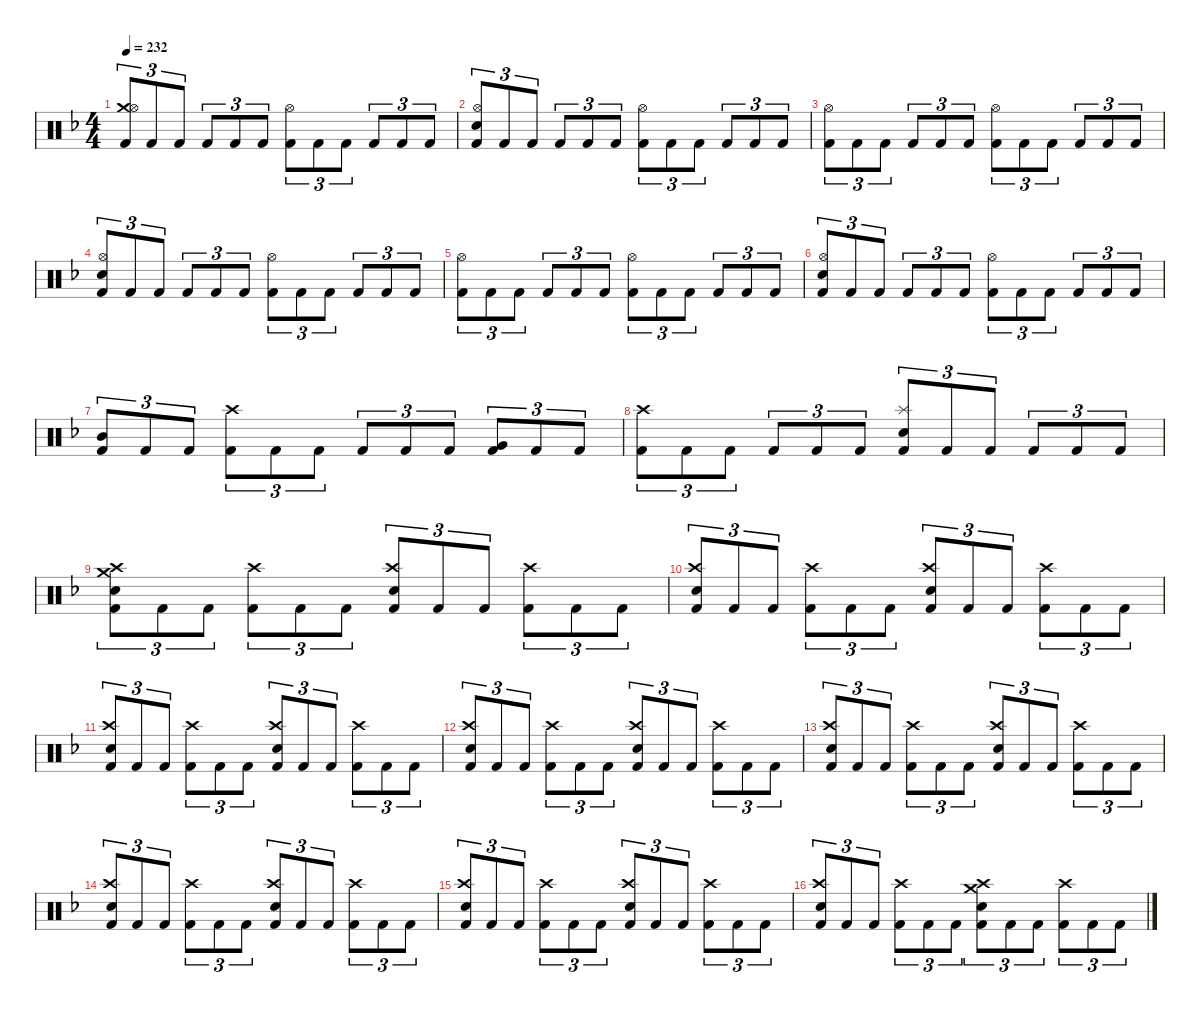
\hideDynamics
\bracketExtendMode nobrackets
\singleTrackTrackNamePolicy hidden
\multiTrackTrackNamePolicy hidden
\firstSystemTrackNameMode fullname
\firstSystemTrackNameOrientation horizontal
\otherSystemsTrackNameOrientation horizontal
\track ("Drumkit" "Drums") {defaultSystemsLayout 4 instrument percussion}
\staff {score}
\articulation defaults
\ts (4 4)
\tempo 232
\clef neutral
\ks dminor
("Crash medium (hit)"{acc forcenatural} "Hi-Hat (open)"{acc forcenatural} "Kick (hit) 2"{acc forcenatural}).8{tu (3 2) dy f beam Up} "Kick (hit) 2"{acc forcenatural}.8{tu (3 2) beam Up} "Kick (hit) 2"{acc forcenatural}.8{tu (3 2) beam Up} "Kick (hit) 2"{acc forcenatural}.8{tu (3 2) beam Up} "Kick (hit) 2"{acc forcenatural}.8{tu (3 2) beam Up} "Kick (hit) 2"{acc forcenatural}.8{tu (3 2) beam Up} ("Hi-Hat (open)"{acc forcenatural} "Kick (hit) 2"{acc forcenatural}).8{tu (3 2) beam Down} "Kick (hit) 2"{acc forcenatural}.8{tu (3 2) beam Down} "Kick (hit) 2"{acc forcenatural}.8{tu (3 2) beam Down} "Kick (hit) 2"{acc forcenatural}.8{tu (3 2) beam Up} "Kick (hit) 2"{acc forcenatural}.8{tu (3 2) beam Up} "Kick (hit) 2"{acc forcenatural}.8{tu (3 2) beam Up} |
("Hi-Hat (open)"{acc forcenatural} "Snare (hit) 2"{acc forcenatural} "Kick (hit) 2"{acc forcenatural}).8{tu (3 2) beam Up} "Kick (hit) 2"{acc forcenatural}.8{tu (3 2) beam Up} "Kick (hit) 2"{acc forcenatural}.8{tu (3 2) beam Up} "Kick (hit) 2"{acc forcenatural}.8{tu (3 2) beam Up} "Kick (hit) 2"{acc forcenatural}.8{tu (3 2) beam Up} "Kick (hit) 2"{acc forcenatural}.8{tu (3 2) beam Up} ("Hi-Hat (open)"{acc forcenatural} "Kick (hit) 2"{acc forcenatural}).8{tu (3 2) beam Down} "Kick (hit) 2"{acc forcenatural}.8{tu (3 2) beam Down} "Kick (hit) 2"{acc forcenatural}.8{tu (3 2) beam Down} "Kick (hit) 2"{acc forcenatural}.8{tu (3 2) beam Up} "Kick (hit) 2"{acc forcenatural}.8{tu (3 2) beam Up} "Kick (hit) 2"{acc forcenatural}.8{tu (3 2) beam Up} |
("Hi-Hat (open)"{acc forcenatural} "Kick (hit) 2"{acc forcenatural}).8{tu (3 2) beam Down} "Kick (hit) 2"{acc forcenatural}.8{tu (3 2) beam Down} "Kick (hit) 2"{acc forcenatural}.8{tu (3 2) beam Down} "Kick (hit) 2"{acc forcenatural}.8{tu (3 2) beam Up} "Kick (hit) 2"{acc forcenatural}.8{tu (3 2) beam Up} "Kick (hit) 2"{acc forcenatural}.8{tu (3 2) beam Up} ("Hi-Hat (open)"{acc forcenatural} "Kick (hit) 2"{acc forcenatural}).8{tu (3 2) beam Down} "Kick (hit) 2"{acc forcenatural}.8{tu (3 2) beam Down} "Kick (hit) 2"{acc forcenatural}.8{tu (3 2) beam Down} "Kick (hit) 2"{acc forcenatural}.8{tu (3 2) beam Up} "Kick (hit) 2"{acc forcenatural}.8{tu (3 2) beam Up} "Kick (hit) 2"{acc forcenatural}.8{tu (3 2) beam Up} |
("Hi-Hat (open)"{acc forcenatural} "Snare (hit) 2"{acc forcenatural} "Kick (hit) 2"{acc forcenatural}).8{tu (3 2) beam Up} "Kick (hit) 2"{acc forcenatural}.8{tu (3 2) beam Up} "Kick (hit) 2"{acc forcenatural}.8{tu (3 2) beam Up} "Kick (hit) 2"{acc forcenatural}.8{tu (3 2) beam Up} "Kick (hit) 2"{acc forcenatural}.8{tu (3 2) beam Up} "Kick (hit) 2"{acc forcenatural}.8{tu (3 2) beam Up} ("Hi-Hat (open)"{acc forcenatural} "Kick (hit) 2"{acc forcenatural}).8{tu (3 2) beam Down} "Kick (hit) 2"{acc forcenatural}.8{tu (3 2) beam Down} "Kick (hit) 2"{acc forcenatural}.8{tu (3 2) beam Down} "Kick (hit) 2"{acc forcenatural}.8{tu (3 2) beam Up} "Kick (hit) 2"{acc forcenatural}.8{tu (3 2) beam Up} "Kick (hit) 2"{acc forcenatural}.8{tu (3 2) beam Up} |
("Hi-Hat (open)"{acc forcenatural} "Kick (hit) 2"{acc forcenatural}).8{tu (3 2) beam Down} "Kick (hit) 2"{acc forcenatural}.8{tu (3 2) beam Down} "Kick (hit) 2"{acc forcenatural}.8{tu (3 2) beam Down} "Kick (hit) 2"{acc forcenatural}.8{tu (3 2) beam Up} "Kick (hit) 2"{acc forcenatural}.8{tu (3 2) beam Up} "Kick (hit) 2"{acc forcenatural}.8{tu (3 2) beam Up} ("Hi-Hat (open)"{acc forcenatural} "Kick (hit) 2"{acc forcenatural}).8{tu (3 2) beam Down} "Kick (hit) 2"{acc forcenatural}.8{tu (3 2) beam Down} "Kick (hit) 2"{acc forcenatural}.8{tu (3 2) beam Down} "Kick (hit) 2"{acc forcenatural}.8{tu (3 2) beam Up} "Kick (hit) 2"{acc forcenatural}.8{tu (3 2) beam Up} "Kick (hit) 2"{acc forcenatural}.8{tu (3 2) beam Up} |
("Hi-Hat (open)"{acc forcenatural} "Snare (hit) 2"{acc forcenatural} "Kick (hit) 2"{acc forcenatural}).8{tu (3 2) beam Up} "Kick (hit) 2"{acc forcenatural}.8{tu (3 2) beam Up} "Kick (hit) 2"{acc forcenatural}.8{tu (3 2) beam Up} "Kick (hit) 2"{acc forcenatural}.8{tu (3 2) beam Up} "Kick (hit) 2"{acc forcenatural}.8{tu (3 2) beam Up} "Kick (hit) 2"{acc forcenatural}.8{tu (3 2) beam Up} ("Hi-Hat (open)"{acc forcenatural} "Kick (hit) 2"{acc forcenatural}).8{tu (3 2) beam Down} "Kick (hit) 2"{acc forcenatural}.8{tu (3 2) beam Down} "Kick (hit) 2"{acc forcenatural}.8{tu (3 2) beam Down} "Kick (hit) 2"{acc forcenatural}.8{tu (3 2) beam Up} "Kick (hit) 2"{acc forcenatural}.8{tu (3 2) beam Up} "Kick (hit) 2"{acc forcenatural}.8{tu (3 2) beam Up} |
("Mid Tom (hit)"{acc forcenatural} "Kick (hit) 2"{acc forcenatural}).8{tu (3 2) beam Up} "Kick (hit) 2"{acc forcenatural}.8{tu (3 2) beam Up} "Kick (hit) 2"{acc forcenatural}.8{tu (3 2) beam Up} ("Crash high (hit)"{acc forcenatural} "Kick (hit) 2"{acc forcenatural}).8{tu (3 2) beam Down} "Kick (hit) 2"{acc forcenatural}.8{tu (3 2) beam Down} "Kick (hit) 2"{acc forcenatural}.8{tu (3 2) beam Down} "Kick (hit) 2"{acc forcenatural}.8{tu (3 2) beam Up} "Kick (hit) 2"{acc forcenatural}.8{tu (3 2) beam Up} "Kick (hit) 2"{acc forcenatural}.8{tu (3 2) beam Up} ("Very Low Tom (hit)"{acc forcenatural} "Kick (hit) 2"{acc forcenatural}).8{tu (3 2) beam Up} "Kick (hit) 2"{acc forcenatural}.8{tu (3 2) beam Up} "Kick (hit) 2"{acc forcenatural}.8{tu (3 2) beam Up} |
("Crash high (hit)"{acc forcenatural} "Kick (hit) 2"{acc forcenatural}).8{tu (3 2) beam Down} "Kick (hit) 2"{acc forcenatural}.8{tu (3 2) beam Down} "Kick (hit) 2"{acc forcenatural}.8{tu (3 2) beam Down} "Kick (hit) 2"{acc forcenatural}.8{tu (3 2) beam Up} "Kick (hit) 2"{acc forcenatural}.8{tu (3 2) beam Up} "Kick (hit) 2"{acc forcenatural}.8{tu (3 2) beam Up} ("Splash (hit)"{acc forcenatural} "Snare (hit) 2"{acc forcenatural} "Kick (hit) 2"{acc forcenatural}).8{tu (3 2) dy mf beam Up} "Kick (hit) 2"{acc forcenatural}.8{tu (3 2) dy f beam Up} "Kick (hit) 2"{acc forcenatural}.8{tu (3 2) beam Up} "Kick (hit) 2"{acc forcenatural}.8{tu (3 2) beam Up} "Kick (hit) 2"{acc forcenatural}.8{tu (3 2) beam Up} "Kick (hit) 2"{acc forcenatural}.8{tu (3 2) beam Up} |
("Crash medium (hit)"{acc forcenatural} "Crash high (hit)"{acc forcenatural} "Snare (hit) 2"{acc forcenatural} "Kick (hit) 2"{acc forcenatural}).8{tu (3 2) beam Down} "Kick (hit) 2"{acc forcenatural}.8{tu (3 2) beam Down} "Kick (hit) 2"{acc forcenatural}.8{tu (3 2) beam Down} ("Crash high (hit)"{acc forcenatural} "Kick (hit) 2"{acc forcenatural}).8{tu (3 2) dy mp beam Down} "Kick (hit) 2"{acc forcenatural}.8{tu (3 2) dy f beam Down} "Kick (hit) 2"{acc forcenatural}.8{tu (3 2) beam Down} ("Crash high (hit)"{acc forcenatural} "Snare (hit) 2"{acc forcenatural} "Kick (hit) 2"{acc forcenatural}).8{tu (3 2) beam Up} "Kick (hit) 2"{acc forcenatural}.8{tu (3 2) beam Up} "Kick (hit) 2"{acc forcenatural}.8{tu (3 2) beam Up} ("Crash high (hit)"{acc forcenatural} "Kick (hit) 2"{acc forcenatural}).8{tu (3 2) dy mp beam Down} "Kick (hit) 2"{acc forcenatural}.8{tu (3 2) dy f beam Down} "Kick (hit) 2"{acc forcenatural}.8{tu (3 2) beam Down} |
("Crash high (hit)"{acc forcenatural} "Snare (hit) 2"{acc forcenatural} "Kick (hit) 2"{acc forcenatural}).8{tu (3 2) beam Up} "Kick (hit) 2"{acc forcenatural}.8{tu (3 2) beam Up} "Kick (hit) 2"{acc forcenatural}.8{tu (3 2) beam Up} ("Crash high (hit)"{acc forcenatural} "Kick (hit) 2"{acc forcenatural}).8{tu (3 2) dy mp beam Down} "Kick (hit) 2"{acc forcenatural}.8{tu (3 2) dy f beam Down} "Kick (hit) 2"{acc forcenatural}.8{tu (3 2) beam Down} ("Crash high (hit)"{acc forcenatural} "Snare (hit) 2"{acc forcenatural} "Kick (hit) 2"{acc forcenatural}).8{tu (3 2) beam Up} "Kick (hit) 2"{acc forcenatural}.8{tu (3 2) beam Up} "Kick (hit) 2"{acc forcenatural}.8{tu (3 2) beam Up} ("Crash high (hit)"{acc forcenatural} "Kick (hit) 2"{acc forcenatural}).8{tu (3 2) dy mp beam Down} "Kick (hit) 2"{acc forcenatural}.8{tu (3 2) dy f beam Down} "Kick (hit) 2"{acc forcenatural}.8{tu (3 2) beam Down} |
("Crash high (hit)"{acc forcenatural} "Snare (hit) 2"{acc forcenatural} "Kick (hit) 2"{acc forcenatural}).8{tu (3 2) beam Up} "Kick (hit) 2"{acc forcenatural}.8{tu (3 2) beam Up} "Kick (hit) 2"{acc forcenatural}.8{tu (3 2) beam Up} ("Crash high (hit)"{acc forcenatural} "Kick (hit) 2"{acc forcenatural}).8{tu (3 2) dy mp beam Down} "Kick (hit) 2"{acc forcenatural}.8{tu (3 2) dy f beam Down} "Kick (hit) 2"{acc forcenatural}.8{tu (3 2) beam Down} ("Crash high (hit)"{acc forcenatural} "Snare (hit) 2"{acc forcenatural} "Kick (hit) 2"{acc forcenatural}).8{tu (3 2) beam Up} "Kick (hit) 2"{acc forcenatural}.8{tu (3 2) beam Up} "Kick (hit) 2"{acc forcenatural}.8{tu (3 2) beam Up} ("Crash high (hit)"{acc forcenatural} "Kick (hit) 2"{acc forcenatural}).8{tu (3 2) dy mp beam Down} "Kick (hit) 2"{acc forcenatural}.8{tu (3 2) dy f beam Down} "Kick (hit) 2"{acc forcenatural}.8{tu (3 2) beam Down} |
("Crash high (hit)"{acc forcenatural} "Snare (hit) 2"{acc forcenatural} "Kick (hit) 2"{acc forcenatural}).8{tu (3 2) beam Up} "Kick (hit) 2"{acc forcenatural}.8{tu (3 2) beam Up} "Kick (hit) 2"{acc forcenatural}.8{tu (3 2) beam Up} ("Crash high (hit)"{acc forcenatural} "Kick (hit) 2"{acc forcenatural}).8{tu (3 2) dy mp beam Down} "Kick (hit) 2"{acc forcenatural}.8{tu (3 2) dy f beam Down} "Kick (hit) 2"{acc forcenatural}.8{tu (3 2) beam Down} ("Crash high (hit)"{acc forcenatural} "Snare (hit) 2"{acc forcenatural} "Kick (hit) 2"{acc forcenatural}).8{tu (3 2) beam Up} "Kick (hit) 2"{acc forcenatural}.8{tu (3 2) beam Up} "Kick (hit) 2"{acc forcenatural}.8{tu (3 2) beam Up} ("Crash high (hit)"{acc forcenatural} "Kick (hit) 2"{acc forcenatural}).8{tu (3 2) dy mp beam Down} "Kick (hit) 2"{acc forcenatural}.8{tu (3 2) dy f beam Down} "Kick (hit) 2"{acc forcenatural}.8{tu (3 2) beam Down} |
("Crash high (hit)"{acc forcenatural} "Snare (hit) 2"{acc forcenatural} "Kick (hit) 2"{acc forcenatural}).8{tu (3 2) beam Up} "Kick (hit) 2"{acc forcenatural}.8{tu (3 2) beam Up} "Kick (hit) 2"{acc forcenatural}.8{tu (3 2) beam Up} ("Crash high (hit)"{acc forcenatural} "Kick (hit) 2"{acc forcenatural}).8{tu (3 2) dy mp beam Down} "Kick (hit) 2"{acc forcenatural}.8{tu (3 2) dy f beam Down} "Kick (hit) 2"{acc forcenatural}.8{tu (3 2) beam Down} ("Crash high (hit)"{acc forcenatural} "Snare (hit) 2"{acc forcenatural} "Kick (hit) 2"{acc forcenatural}).8{tu (3 2) beam Up} "Kick (hit) 2"{acc forcenatural}.8{tu (3 2) beam Up} "Kick (hit) 2"{acc forcenatural}.8{tu (3 2) beam Up} ("Crash high (hit)"{acc forcenatural} "Kick (hit) 2"{acc forcenatural}).8{tu (3 2) dy mp beam Down} "Kick (hit) 2"{acc forcenatural}.8{tu (3 2) dy f beam Down} "Kick (hit) 2"{acc forcenatural}.8{tu (3 2) beam Down} |
("Crash high (hit)"{acc forcenatural} "Snare (hit) 2"{acc forcenatural} "Kick (hit) 2"{acc forcenatural}).8{tu (3 2) beam Up} "Kick (hit) 2"{acc forcenatural}.8{tu (3 2) beam Up} "Kick (hit) 2"{acc forcenatural}.8{tu (3 2) beam Up} ("Crash high (hit)"{acc forcenatural} "Kick (hit) 2"{acc forcenatural}).8{tu (3 2) dy mp beam Down} "Kick (hit) 2"{acc forcenatural}.8{tu (3 2) dy f beam Down} "Kick (hit) 2"{acc forcenatural}.8{tu (3 2) beam Down} ("Crash high (hit)"{acc forcenatural} "Snare (hit) 2"{acc forcenatural} "Kick (hit) 2"{acc forcenatural}).8{tu (3 2) beam Up} "Kick (hit) 2"{acc forcenatural}.8{tu (3 2) beam Up} "Kick (hit) 2"{acc forcenatural}.8{tu (3 2) beam Up} ("Crash high (hit)"{acc forcenatural} "Kick (hit) 2"{acc forcenatural}).8{tu (3 2) dy mp beam Down} "Kick (hit) 2"{acc forcenatural}.8{tu (3 2) dy f beam Down} "Kick (hit) 2"{acc forcenatural}.8{tu (3 2) beam Down} |
("Crash high (hit)"{acc forcenatural} "Snare (hit) 2"{acc forcenatural} "Kick (hit) 2"{acc forcenatural}).8{tu (3 2) beam Up} "Kick (hit) 2"{acc forcenatural}.8{tu (3 2) beam Up} "Kick (hit) 2"{acc forcenatural}.8{tu (3 2) beam Up} ("Crash high (hit)"{acc forcenatural} "Kick (hit) 2"{acc forcenatural}).8{tu (3 2) dy mp beam Down} "Kick (hit) 2"{acc forcenatural}.8{tu (3 2) dy f beam Down} "Kick (hit) 2"{acc forcenatural}.8{tu (3 2) beam Down} ("Crash high (hit)"{acc forcenatural} "Snare (hit) 2"{acc forcenatural} "Kick (hit) 2"{acc forcenatural}).8{tu (3 2) beam Up} "Kick (hit) 2"{acc forcenatural}.8{tu (3 2) beam Up} "Kick (hit) 2"{acc forcenatural}.8{tu (3 2) beam Up} ("Crash high (hit)"{acc forcenatural} "Kick (hit) 2"{acc forcenatural}).8{tu (3 2) dy mp beam Down} "Kick (hit) 2"{acc forcenatural}.8{tu (3 2) dy f beam Down} "Kick (hit) 2"{acc forcenatural}.8{tu (3 2) beam Down} |
("Crash high (hit)"{acc forcenatural} "Snare (hit) 2"{acc forcenatural} "Kick (hit) 2"{acc forcenatural}).8{tu (3 2) beam Up} "Kick (hit) 2"{acc forcenatural}.8{tu (3 2) beam Up} "Kick (hit) 2"{acc forcenatural}.8{tu (3 2) beam Up} ("Crash high (hit)"{acc forcenatural} "Kick (hit) 2"{acc forcenatural}).8{tu (3 2) dy mp beam Down} "Kick (hit) 2"{acc forcenatural}.8{tu (3 2) dy f beam Down} "Kick (hit) 2"{acc forcenatural}.8{tu (3 2) beam Down} ("Crash medium (hit)"{acc forcenatural} "Crash high (hit)"{acc forcenatural} "Snare (hit) 2"{acc forcenatural} "Kick (hit) 2"{acc forcenatural}).8{tu (3 2) beam Down} "Kick (hit) 2"{acc forcenatural}.8{tu (3 2) beam Down} "Kick (hit) 2"{acc forcenatural}.8{tu (3 2) beam Down} ("Crash high (hit)"{acc forcenatural} "Kick (hit) 2"{acc forcenatural}).8{tu (3 2) dy mp beam Down} "Kick (hit) 2"{acc forcenatural}.8{tu (3 2) dy f beam Down} "Kick (hit) 2"{acc forcenatural}.8{tu (3 2) beam Down}
